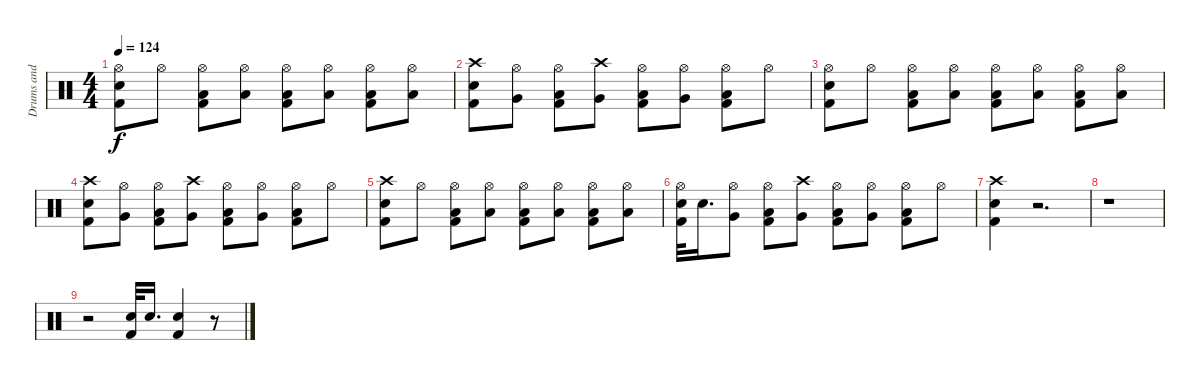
\track ("Drums and Percussie" "Drums and ") {instrument percussion}
\staff {score}
\articulation defaults
\ts (4 4)
\tempo 124
\clef neutral
\ks c
("Snare (hit) 2" "Kick (hit) 2" "Hi-Hat (open)").8{dy f} "Hi-Hat (open)".8 ("Low Floor Tom (hit)" "Kick (hit) 2" "Hi-Hat (open)").8 ("Low Floor Tom (hit)" "Hi-Hat (open)").8 ("Low Floor Tom (hit)" "Hi-Hat (open)" "Kick (hit) 2").8 ("Low Floor Tom (hit)" "Hi-Hat (open)").8 ("Low Floor Tom (hit)" "Kick (hit) 2" "Hi-Hat (open)").8 ("Low Floor Tom (hit)" "Hi-Hat (open)").8 |
("Snare (hit) 2" "Kick (hit) 2" "Crash high (hit)").8 ("Hi-Hat (open)" "Very Low Tom (hit)").8 ("Low Floor Tom (hit)" "Kick (hit) 2" "Hi-Hat (open)").8 ("Very Low Tom (hit)" "Crash high (hit)").8 ("Low Floor Tom (hit)" "Hi-Hat (open)" "Kick (hit) 2").8 ("Very Low Tom (hit)" "Hi-Hat (open)").8 ("Low Floor Tom (hit)" "Kick (hit) 2" "Hi-Hat (open)").8 "Hi-Hat (open)".8 |
("Snare (hit) 2" "Kick (hit) 2" "Hi-Hat (open)").8 "Hi-Hat (open)".8 ("Low Floor Tom (hit)" "Kick (hit) 2" "Hi-Hat (open)").8 ("Low Floor Tom (hit)" "Hi-Hat (open)").8 ("Low Floor Tom (hit)" "Hi-Hat (open)" "Kick (hit) 2").8 ("Low Floor Tom (hit)" "Hi-Hat (open)").8 ("Low Floor Tom (hit)" "Kick (hit) 2" "Hi-Hat (open)").8 ("Low Floor Tom (hit)" "Hi-Hat (open)").8 |
("Snare (hit) 2" "Kick (hit) 2" "Crash high (hit)").8 ("Hi-Hat (open)" "Very Low Tom (hit)").8 ("Low Floor Tom (hit)" "Kick (hit) 2" "Hi-Hat (open)").8 ("Very Low Tom (hit)" "Crash high (hit)").8 ("Low Floor Tom (hit)" "Hi-Hat (open)" "Kick (hit) 2").8 ("Very Low Tom (hit)" "Hi-Hat (open)").8 ("Low Floor Tom (hit)" "Kick (hit) 2" "Hi-Hat (open)").8 "Hi-Hat (open)".8 |
("Snare (hit) 2" "Kick (hit) 2" "Crash high (hit)").8 "Hi-Hat (open)".8 ("Low Floor Tom (hit)" "Kick (hit) 2" "Hi-Hat (open)").8 ("Low Floor Tom (hit)" "Hi-Hat (open)").8 ("Low Floor Tom (hit)" "Hi-Hat (open)" "Kick (hit) 2").8 ("Low Floor Tom (hit)" "Hi-Hat (open)").8 ("Low Floor Tom (hit)" "Kick (hit) 2" "Hi-Hat (open)").8 ("Low Floor Tom (hit)" "Hi-Hat (open)").8 |
("Snare (hit) 2" "Kick (hit) 2" "Hi-Hat (open)").32 "Snare (hit) 2".16{d} ("Hi-Hat (open)" "Very Low Tom (hit)").8 ("Low Floor Tom (hit)" "Kick (hit) 2" "Hi-Hat (open)").8 ("Very Low Tom (hit)" "Crash high (hit)").8 ("Low Floor Tom (hit)" "Hi-Hat (open)" "Kick (hit) 2").8 ("Very Low Tom (hit)" "Hi-Hat (open)").8 ("Low Floor Tom (hit)" "Kick (hit) 2" "Hi-Hat (open)").8 "Hi-Hat (open)".8 |
("Crash high (hit)" "Snare (hit) 2" "Kick (hit) 2").4 r.2{d} |
r.1 |
r.2 ("Snare (hit) 2" "Kick (hit) 2").32 "Snare (hit) 2".16{d} ("Kick (hit) 2" "Snare (hit) 2").4 r.8
